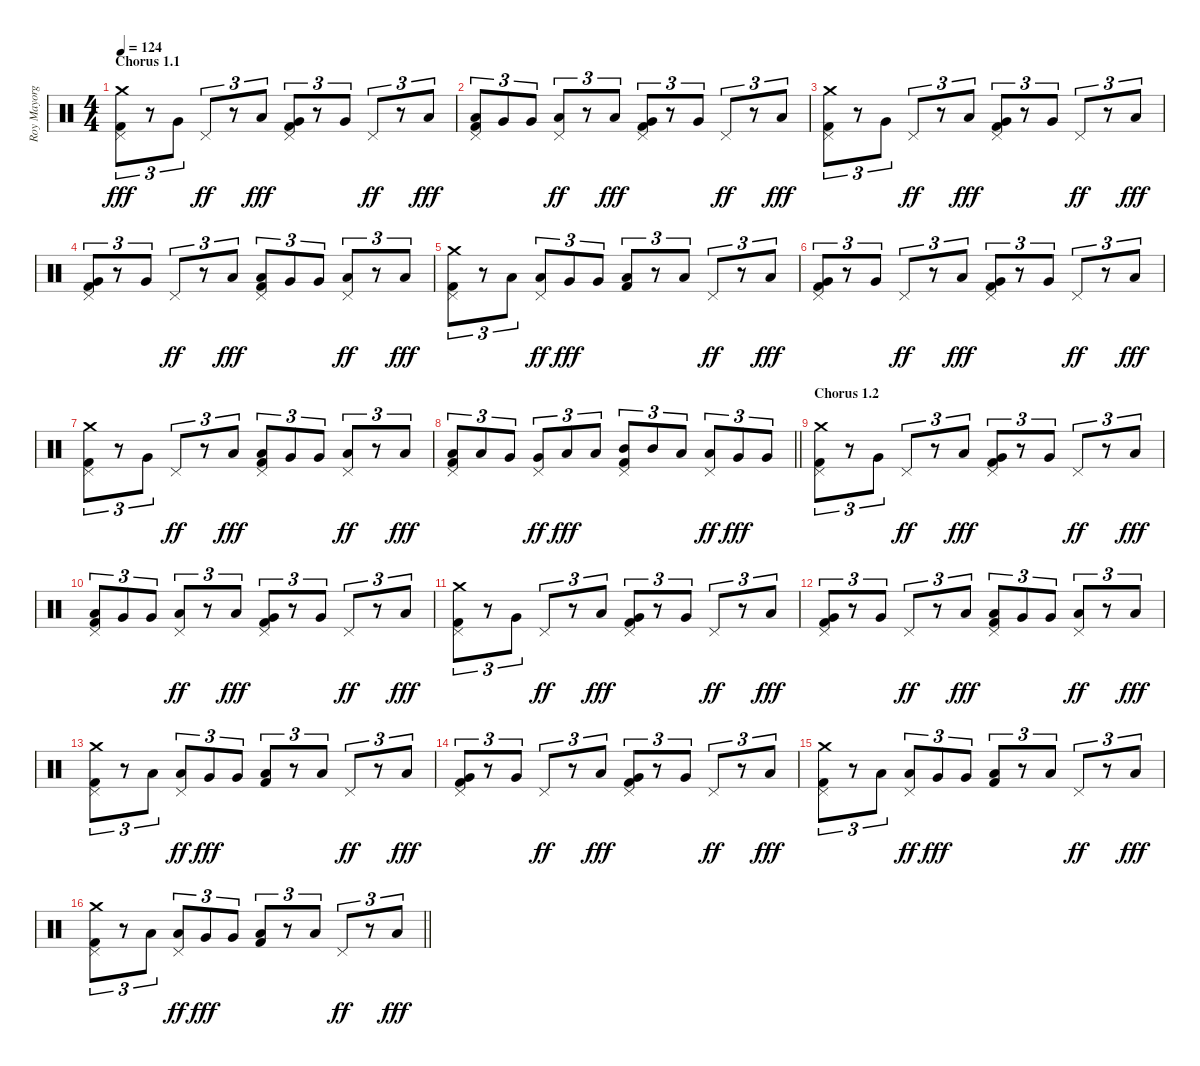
\track ("Roy Mayorga" "Roy Mayorg") {instrument percussion}
\staff {score}
\articulation defaults
\ts (4 4)
\section ("" "Chorus 1.1")
\tempo 124
\clef neutral
\ks c
("Crash medium (hit)" "Pedal Hi-Hat (hit)" "Kick (hit) 2").8{tu (3 2) dy fff} r.8{tu (3 2)} "Very Low Tom (hit)".8{tu (3 2)} "Pedal Hi-Hat (hit)".8{tu (3 2) dy ff} r.8{tu (3 2)} "Low Tom (hit)".8{tu (3 2) dy fff} ("Very Low Tom (hit)" "Pedal Hi-Hat (hit)" "Kick (hit) 2").8{tu (3 2)} r.8{tu (3 2)} "Very Low Tom (hit)".8{tu (3 2)} "Pedal Hi-Hat (hit)".8{tu (3 2) dy ff} r.8{tu (3 2)} "Low Tom (hit)".8{tu (3 2) dy fff} |
("Low Tom (hit)" "Pedal Hi-Hat (hit)" "Kick (hit) 2").8{tu (3 2)} "Very Low Tom (hit)".8{tu (3 2)} "Very Low Tom (hit)".8{tu (3 2)} ("Low Floor Tom (hit)" "Pedal Hi-Hat (hit)").8{tu (3 2) dy ff} r.8{tu (3 2)} "Low Tom (hit)".8{tu (3 2) dy fff} ("Very Low Tom (hit)" "Pedal Hi-Hat (hit)" "Kick (hit) 2").8{tu (3 2)} r.8{tu (3 2)} "Very Low Tom (hit)".8{tu (3 2)} "Pedal Hi-Hat (hit)".8{tu (3 2) dy ff} r.8{tu (3 2)} "Low Tom (hit)".8{tu (3 2) dy fff} |
("Crash medium (hit)" "Pedal Hi-Hat (hit)" "Kick (hit) 2").8{tu (3 2)} r.8{tu (3 2)} "Very Low Tom (hit)".8{tu (3 2)} "Pedal Hi-Hat (hit)".8{tu (3 2) dy ff} r.8{tu (3 2)} "Low Tom (hit)".8{tu (3 2) dy fff} ("Very Low Tom (hit)" "Pedal Hi-Hat (hit)" "Kick (hit) 2").8{tu (3 2)} r.8{tu (3 2)} "Very Low Tom (hit)".8{tu (3 2)} "Pedal Hi-Hat (hit)".8{tu (3 2) dy ff} r.8{tu (3 2)} "Low Tom (hit)".8{tu (3 2) dy fff} |
("Very Low Tom (hit)" "Pedal Hi-Hat (hit)" "Kick (hit) 2").8{tu (3 2)} r.8{tu (3 2)} "Very Low Tom (hit)".8{tu (3 2)} "Pedal Hi-Hat (hit)".8{tu (3 2) dy ff} r.8{tu (3 2)} "Low Tom (hit)".8{tu (3 2) dy fff} ("Low Tom (hit)" "Pedal Hi-Hat (hit)" "Kick (hit) 2").8{tu (3 2)} "Very Low Tom (hit)".8{tu (3 2)} "Very Low Tom (hit)".8{tu (3 2)} ("Low Floor Tom (hit)" "Pedal Hi-Hat (hit)").8{tu (3 2) dy ff} r.8{tu (3 2)} "Low Tom (hit)".8{tu (3 2) dy fff} |
("Crash medium (hit)" "Pedal Hi-Hat (hit)" "Kick (hit) 2").8{tu (3 2)} r.8{tu (3 2)} "Low Tom (hit)".8{tu (3 2)} ("Low Tom (hit)" "Pedal Hi-Hat (hit)").8{tu (3 2) dy ff} "Very Low Tom (hit)".8{tu (3 2) dy fff} "Very Low Tom (hit)".8{tu (3 2)} ("Low Floor Tom (hit)" "Kick (hit) 2").8{tu (3 2)} r.8{tu (3 2)} "Low Floor Tom (hit)".8{tu (3 2)} "Pedal Hi-Hat (hit)".8{tu (3 2) dy ff} r.8{tu (3 2)} "Low Tom (hit)".8{tu (3 2) dy fff} |
("Very Low Tom (hit)" "Pedal Hi-Hat (hit)" "Kick (hit) 2").8{tu (3 2)} r.8{tu (3 2)} "Very Low Tom (hit)".8{tu (3 2)} "Pedal Hi-Hat (hit)".8{tu (3 2) dy ff} r.8{tu (3 2)} "Low Tom (hit)".8{tu (3 2) dy fff} ("Very Low Tom (hit)" "Pedal Hi-Hat (hit)" "Kick (hit) 2").8{tu (3 2)} r.8{tu (3 2)} "Very Low Tom (hit)".8{tu (3 2)} "Pedal Hi-Hat (hit)".8{tu (3 2) dy ff} r.8{tu (3 2)} "Low Tom (hit)".8{tu (3 2) dy fff} |
("Crash medium (hit)" "Pedal Hi-Hat (hit)" "Kick (hit) 2").8{tu (3 2)} r.8{tu (3 2)} "Very Low Tom (hit)".8{tu (3 2)} "Pedal Hi-Hat (hit)".8{tu (3 2) dy ff} r.8{tu (3 2)} "Low Tom (hit)".8{tu (3 2) dy fff} ("Low Tom (hit)" "Pedal Hi-Hat (hit)" "Kick (hit) 2").8{tu (3 2)} "Very Low Tom (hit)".8{tu (3 2)} "Very Low Tom (hit)".8{tu (3 2)} ("Low Floor Tom (hit)" "Pedal Hi-Hat (hit)").8{tu (3 2) dy ff} r.8{tu (3 2)} "Low Tom (hit)".8{tu (3 2) dy fff} |
\barLineRight lightlight
("Low Floor Tom (hit)" "Pedal Hi-Hat (hit)" "Kick (hit) 2").8{tu (3 2)} "Low Floor Tom (hit)".8{tu (3 2)} "Very Low Tom (hit)".8{tu (3 2)} ("Very Low Tom (hit)" "Pedal Hi-Hat (hit)").8{tu (3 2) dy ff} "Low Tom (hit)".8{tu (3 2) dy fff} "Low Tom (hit)".8{tu (3 2)} ("Mid Tom (hit)" "Pedal Hi-Hat (hit)" "Kick (hit) 2").8{tu (3 2)} "Mid Tom (hit)".8{tu (3 2)} "Low Tom (hit)".8{tu (3 2)} ("Low Tom (hit)" "Pedal Hi-Hat (hit)").8{tu (3 2) dy ff} "Very Low Tom (hit)".8{tu (3 2) dy fff} "Very Low Tom (hit)".8{tu (3 2)} |
\section ("" "Chorus 1.2")
("Crash medium (hit)" "Pedal Hi-Hat (hit)" "Kick (hit) 2").8{tu (3 2)} r.8{tu (3 2)} "Very Low Tom (hit)".8{tu (3 2)} "Pedal Hi-Hat (hit)".8{tu (3 2) dy ff} r.8{tu (3 2)} "Low Tom (hit)".8{tu (3 2) dy fff} ("Very Low Tom (hit)" "Pedal Hi-Hat (hit)" "Kick (hit) 2").8{tu (3 2)} r.8{tu (3 2)} "Very Low Tom (hit)".8{tu (3 2)} "Pedal Hi-Hat (hit)".8{tu (3 2) dy ff} r.8{tu (3 2)} "Low Tom (hit)".8{tu (3 2) dy fff} |
("Low Tom (hit)" "Pedal Hi-Hat (hit)" "Kick (hit) 2").8{tu (3 2)} "Very Low Tom (hit)".8{tu (3 2)} "Very Low Tom (hit)".8{tu (3 2)} ("Low Floor Tom (hit)" "Pedal Hi-Hat (hit)").8{tu (3 2) dy ff} r.8{tu (3 2)} "Low Tom (hit)".8{tu (3 2) dy fff} ("Very Low Tom (hit)" "Pedal Hi-Hat (hit)" "Kick (hit) 2").8{tu (3 2)} r.8{tu (3 2)} "Very Low Tom (hit)".8{tu (3 2)} "Pedal Hi-Hat (hit)".8{tu (3 2) dy ff} r.8{tu (3 2)} "Low Tom (hit)".8{tu (3 2) dy fff} |
("Crash medium (hit)" "Pedal Hi-Hat (hit)" "Kick (hit) 2").8{tu (3 2)} r.8{tu (3 2)} "Very Low Tom (hit)".8{tu (3 2)} "Pedal Hi-Hat (hit)".8{tu (3 2) dy ff} r.8{tu (3 2)} "Low Tom (hit)".8{tu (3 2) dy fff} ("Very Low Tom (hit)" "Pedal Hi-Hat (hit)" "Kick (hit) 2").8{tu (3 2)} r.8{tu (3 2)} "Very Low Tom (hit)".8{tu (3 2)} "Pedal Hi-Hat (hit)".8{tu (3 2) dy ff} r.8{tu (3 2)} "Low Tom (hit)".8{tu (3 2) dy fff} |
("Very Low Tom (hit)" "Pedal Hi-Hat (hit)" "Kick (hit) 2").8{tu (3 2)} r.8{tu (3 2)} "Very Low Tom (hit)".8{tu (3 2)} "Pedal Hi-Hat (hit)".8{tu (3 2) dy ff} r.8{tu (3 2)} "Low Tom (hit)".8{tu (3 2) dy fff} ("Low Tom (hit)" "Pedal Hi-Hat (hit)" "Kick (hit) 2").8{tu (3 2)} "Very Low Tom (hit)".8{tu (3 2)} "Very Low Tom (hit)".8{tu (3 2)} ("Low Floor Tom (hit)" "Pedal Hi-Hat (hit)").8{tu (3 2) dy ff} r.8{tu (3 2)} "Low Tom (hit)".8{tu (3 2) dy fff} |
("Crash medium (hit)" "Pedal Hi-Hat (hit)" "Kick (hit) 2").8{tu (3 2)} r.8{tu (3 2)} "Low Tom (hit)".8{tu (3 2)} ("Low Tom (hit)" "Pedal Hi-Hat (hit)").8{tu (3 2) dy ff} "Very Low Tom (hit)".8{tu (3 2) dy fff} "Very Low Tom (hit)".8{tu (3 2)} ("Low Floor Tom (hit)" "Kick (hit) 2").8{tu (3 2)} r.8{tu (3 2)} "Low Floor Tom (hit)".8{tu (3 2)} "Pedal Hi-Hat (hit)".8{tu (3 2) dy ff} r.8{tu (3 2)} "Low Tom (hit)".8{tu (3 2) dy fff} |
("Very Low Tom (hit)" "Pedal Hi-Hat (hit)" "Kick (hit) 2").8{tu (3 2)} r.8{tu (3 2)} "Very Low Tom (hit)".8{tu (3 2)} "Pedal Hi-Hat (hit)".8{tu (3 2) dy ff} r.8{tu (3 2)} "Low Tom (hit)".8{tu (3 2) dy fff} ("Very Low Tom (hit)" "Pedal Hi-Hat (hit)" "Kick (hit) 2").8{tu (3 2)} r.8{tu (3 2)} "Very Low Tom (hit)".8{tu (3 2)} "Pedal Hi-Hat (hit)".8{tu (3 2) dy ff} r.8{tu (3 2)} "Low Tom (hit)".8{tu (3 2) dy fff} |
("Crash medium (hit)" "Pedal Hi-Hat (hit)" "Kick (hit) 2").8{tu (3 2)} r.8{tu (3 2)} "Low Tom (hit)".8{tu (3 2)} ("Low Tom (hit)" "Pedal Hi-Hat (hit)").8{tu (3 2) dy ff} "Very Low Tom (hit)".8{tu (3 2) dy fff} "Very Low Tom (hit)".8{tu (3 2)} ("Low Floor Tom (hit)" "Kick (hit) 2").8{tu (3 2)} r.8{tu (3 2)} "Low Floor Tom (hit)".8{tu (3 2)} "Pedal Hi-Hat (hit)".8{tu (3 2) dy ff} r.8{tu (3 2)} "Low Tom (hit)".8{tu (3 2) dy fff} |
\barLineRight lightlight
("Crash medium (hit)" "Pedal Hi-Hat (hit)" "Kick (hit) 2").8{tu (3 2)} r.8{tu (3 2)} "Low Tom (hit)".8{tu (3 2)} ("Low Tom (hit)" "Pedal Hi-Hat (hit)").8{tu (3 2) dy ff} "Very Low Tom (hit)".8{tu (3 2) dy fff} "Very Low Tom (hit)".8{tu (3 2)} ("Low Floor Tom (hit)" "Kick (hit) 2").8{tu (3 2)} r.8{tu (3 2)} "Low Floor Tom (hit)".8{tu (3 2)} "Pedal Hi-Hat (hit)".8{tu (3 2) dy ff} r.8{tu (3 2)} "Low Tom (hit)".8{tu (3 2) dy fff}
